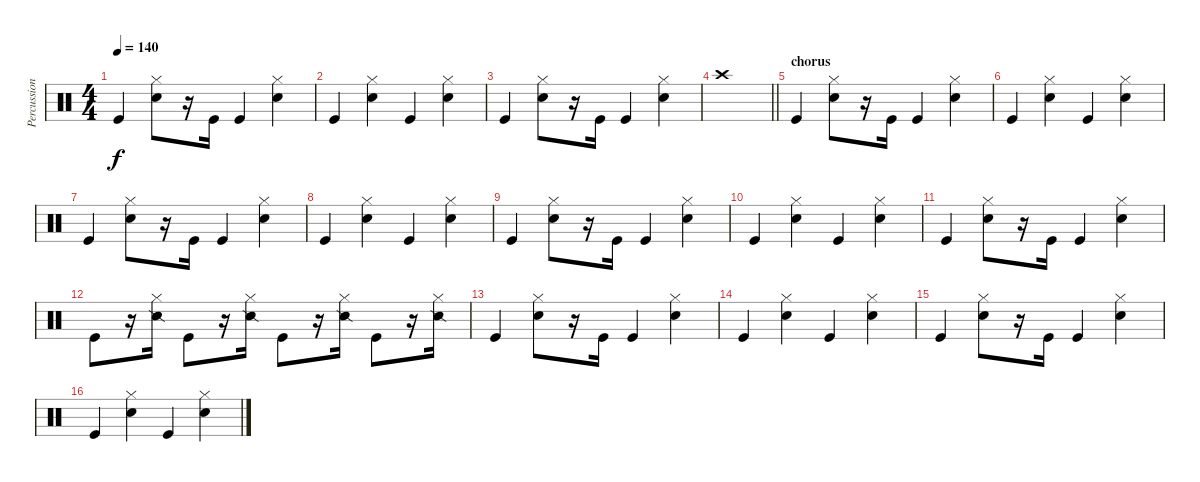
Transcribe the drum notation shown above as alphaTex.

\track ("Percussions" "Percussion") {instrument percussion}
\staff {score}
\articulation defaults
\ts (4 4)
\tempo 140
\clef neutral
\ks c "Kick (hit)".4{dy f}
("Hi-Hat (closed)" "Electric Snare (hit)").8 r.16 "Kick (hit)".16 "Kick (hit)".4 ("Hi-Hat (closed)" "Electric Snare (hit)").4 |
"Kick (hit)".4 ("Hi-Hat (closed)" "Electric Snare (hit)").4 "Kick (hit)".4 ("Hi-Hat (closed)" "Electric Snare (hit)").4 |
"Kick (hit)".4 ("Hi-Hat (closed)" "Electric Snare (hit)").8 r.16 "Kick (hit)".16 "Kick (hit)".4 ("Hi-Hat (closed)" "Electric Snare (hit)").4 |
\barLineRight lightlight "Crash high (hit)".1
|
\section ("" "chorus")
"Kick (hit)".4 ("Hi-Hat (closed)" "Electric Snare (hit)").8 r.16 "Kick (hit)".16 "Kick (hit)".4 ("Hi-Hat (closed)" "Electric Snare (hit)").4 |
"Kick (hit)".4 ("Hi-Hat (closed)" "Electric Snare (hit)").4 "Kick (hit)".4 ("Hi-Hat (closed)" "Electric Snare (hit)").4 |
"Kick (hit)".4 ("Hi-Hat (closed)" "Electric Snare (hit)").8 r.16 "Kick (hit)".16 "Kick (hit)".4 ("Hi-Hat (closed)" "Electric Snare (hit)").4 |
"Kick (hit)".4 ("Hi-Hat (closed)" "Electric Snare (hit)").4 "Kick (hit)".4 ("Hi-Hat (closed)" "Electric Snare (hit)").4 |
"Kick (hit)".4 ("Hi-Hat (closed)" "Electric Snare (hit)").8 r.16 "Kick (hit)".16 "Kick (hit)".4 ("Hi-Hat (closed)" "Electric Snare (hit)").4 |
"Kick (hit)".4 ("Hi-Hat (closed)" "Electric Snare (hit)").4 "Kick (hit)".4 ("Hi-Hat (closed)" "Electric Snare (hit)").4 |
"Kick (hit)".4 ("Hi-Hat (closed)" "Electric Snare (hit)").8 r.16 "Kick (hit)".16 "Kick (hit)".4 ("Hi-Hat (closed)" "Electric Snare (hit)").4 |
"Kick (hit)".8 r.16 ("Hi-Hat (closed)" "Snare (side stick) 2").16 "Kick (hit)".8 r.16 ("Hi-Hat (closed)" "Snare (side stick) 2").16 "Kick (hit)".8 r.16 ("Hi-Hat (closed)" "Snare (side stick) 2").16 "Kick (hit)".8 r.16 ("Hi-Hat (closed)" "Snare (side stick) 2").16 |
"Kick (hit)".4 ("Hi-Hat (closed)" "Electric Snare (hit)").8 r.16 "Kick (hit)".16 "Kick (hit)".4 ("Hi-Hat (closed)" "Electric Snare (hit)").4 |
"Kick (hit)".4 ("Hi-Hat (closed)" "Electric Snare (hit)").4 "Kick (hit)".4 ("Hi-Hat (closed)" "Electric Snare (hit)").4 |
"Kick (hit)".4 ("Hi-Hat (closed)" "Electric Snare (hit)").8 r.16 "Kick (hit)".16 "Kick (hit)".4 ("Hi-Hat (closed)" "Electric Snare (hit)").4 |
"Kick (hit)".4 ("Hi-Hat (closed)" "Electric Snare (hit)").4 "Kick (hit)".4 ("Hi-Hat (closed)" "Electric Snare (hit)").4
